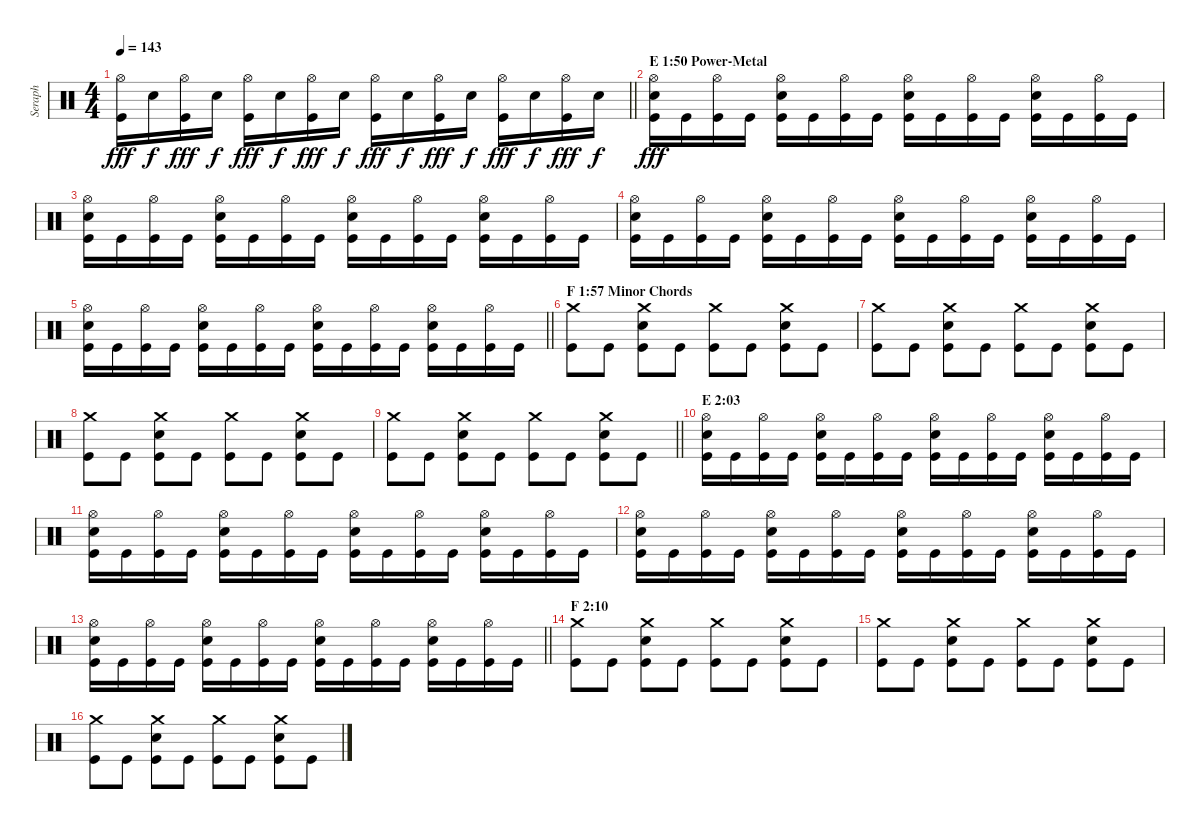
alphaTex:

\track ("Seraph" "Seraph") {instrument percussion}
\staff {score}
\articulation defaults
\ts (4 4)
\tempo 143
\clef neutral
\barLineRight lightlight
\ks c
("Hi-Hat (open)" "Kick (hit)").16{dy fff} "Electric Snare (hit)".16{dy f} ("Hi-Hat (open)" "Kick (hit)").16{dy fff} "Electric Snare (hit)".16{dy f} ("Hi-Hat (open)" "Kick (hit)").16{dy fff} "Electric Snare (hit)".16{dy f} ("Hi-Hat (open)" "Kick (hit)").16{dy fff} "Electric Snare (hit)".16{dy f} ("Hi-Hat (open)" "Kick (hit)").16{dy fff} "Electric Snare (hit)".16{dy f} ("Hi-Hat (open)" "Kick (hit)").16{dy fff} "Electric Snare (hit)".16{dy f} ("Hi-Hat (open)" "Kick (hit)").16{dy fff} "Electric Snare (hit)".16{dy f} ("Hi-Hat (open)" "Kick (hit)").16{dy fff} "Electric Snare (hit)".16{dy f} |
\section ("" "E 1:50 Power-Metal")
("Hi-Hat (open)" "Electric Snare (hit)" "Kick (hit)").16{dy fff} "Kick (hit)".16 ("Hi-Hat (open)" "Kick (hit)").16 "Kick (hit)".16 ("Hi-Hat (open)" "Electric Snare (hit)" "Kick (hit)").16 "Kick (hit)".16 ("Hi-Hat (open)" "Kick (hit)").16 "Kick (hit)".16 ("Hi-Hat (open)" "Electric Snare (hit)" "Kick (hit)").16 "Kick (hit)".16 ("Hi-Hat (open)" "Kick (hit)").16 "Kick (hit)".16 ("Hi-Hat (open)" "Electric Snare (hit)" "Kick (hit)").16 "Kick (hit)".16 ("Hi-Hat (open)" "Kick (hit)").16 "Kick (hit)".16 |
("Hi-Hat (open)" "Electric Snare (hit)" "Kick (hit)").16 "Kick (hit)".16 ("Hi-Hat (open)" "Kick (hit)").16 "Kick (hit)".16 ("Hi-Hat (open)" "Electric Snare (hit)" "Kick (hit)").16 "Kick (hit)".16 ("Hi-Hat (open)" "Kick (hit)").16 "Kick (hit)".16 ("Hi-Hat (open)" "Electric Snare (hit)" "Kick (hit)").16 "Kick (hit)".16 ("Hi-Hat (open)" "Kick (hit)").16 "Kick (hit)".16 ("Hi-Hat (open)" "Electric Snare (hit)" "Kick (hit)").16 "Kick (hit)".16 ("Hi-Hat (open)" "Kick (hit)").16 "Kick (hit)".16 |
("Hi-Hat (open)" "Electric Snare (hit)" "Kick (hit)").16 "Kick (hit)".16 ("Hi-Hat (open)" "Kick (hit)").16 "Kick (hit)".16 ("Hi-Hat (open)" "Electric Snare (hit)" "Kick (hit)").16 "Kick (hit)".16 ("Hi-Hat (open)" "Kick (hit)").16 "Kick (hit)".16 ("Hi-Hat (open)" "Electric Snare (hit)" "Kick (hit)").16 "Kick (hit)".16 ("Hi-Hat (open)" "Kick (hit)").16 "Kick (hit)".16 ("Hi-Hat (open)" "Electric Snare (hit)" "Kick (hit)").16 "Kick (hit)".16 ("Hi-Hat (open)" "Kick (hit)").16 "Kick (hit)".16 |
\barLineRight lightlight
("Hi-Hat (open)" "Electric Snare (hit)" "Kick (hit)").16 "Kick (hit)".16 ("Hi-Hat (open)" "Kick (hit)").16 "Kick (hit)".16 ("Hi-Hat (open)" "Electric Snare (hit)" "Kick (hit)").16 "Kick (hit)".16 ("Hi-Hat (open)" "Kick (hit)").16 "Kick (hit)".16 ("Hi-Hat (open)" "Electric Snare (hit)" "Kick (hit)").16 "Kick (hit)".16 ("Hi-Hat (open)" "Kick (hit)").16 "Kick (hit)".16 ("Hi-Hat (open)" "Electric Snare (hit)" "Kick (hit)").16 "Kick (hit)".16 ("Hi-Hat (open)" "Kick (hit)").16 "Kick (hit)".16 |
\section ("" "F 1:57 Minor Chords")
("Crash medium (hit)" "Kick (hit)").8 "Kick (hit)".8 ("Crash medium (hit)" "Electric Snare (hit)" "Kick (hit)").8 "Kick (hit)".8 ("Crash medium (hit)" "Kick (hit)").8 "Kick (hit)".8 ("Crash medium (hit)" "Electric Snare (hit)" "Kick (hit)").8 "Kick (hit)".8 |
("Crash medium (hit)" "Kick (hit)").8 "Kick (hit)".8 ("Crash medium (hit)" "Electric Snare (hit)" "Kick (hit)").8 "Kick (hit)".8 ("Crash medium (hit)" "Kick (hit)").8 "Kick (hit)".8 ("Crash medium (hit)" "Electric Snare (hit)" "Kick (hit)").8 "Kick (hit)".8 |
("Crash medium (hit)" "Kick (hit)").8 "Kick (hit)".8 ("Crash medium (hit)" "Electric Snare (hit)" "Kick (hit)").8 "Kick (hit)".8 ("Crash medium (hit)" "Kick (hit)").8 "Kick (hit)".8 ("Crash medium (hit)" "Electric Snare (hit)" "Kick (hit)").8 "Kick (hit)".8 |
\barLineRight lightlight
("Crash medium (hit)" "Kick (hit)").8 "Kick (hit)".8 ("Crash medium (hit)" "Electric Snare (hit)" "Kick (hit)").8 "Kick (hit)".8 ("Crash medium (hit)" "Kick (hit)").8 "Kick (hit)".8 ("Crash medium (hit)" "Electric Snare (hit)" "Kick (hit)").8 "Kick (hit)".8 |
\section ("" "E 2:03")
("Hi-Hat (open)" "Electric Snare (hit)" "Kick (hit)").16 "Kick (hit)".16 ("Hi-Hat (open)" "Kick (hit)").16 "Kick (hit)".16 ("Hi-Hat (open)" "Electric Snare (hit)" "Kick (hit)").16 "Kick (hit)".16 ("Hi-Hat (open)" "Kick (hit)").16 "Kick (hit)".16 ("Hi-Hat (open)" "Electric Snare (hit)" "Kick (hit)").16 "Kick (hit)".16 ("Hi-Hat (open)" "Kick (hit)").16 "Kick (hit)".16 ("Hi-Hat (open)" "Electric Snare (hit)" "Kick (hit)").16 "Kick (hit)".16 ("Hi-Hat (open)" "Kick (hit)").16 "Kick (hit)".16 |
("Hi-Hat (open)" "Electric Snare (hit)" "Kick (hit)").16 "Kick (hit)".16 ("Hi-Hat (open)" "Kick (hit)").16 "Kick (hit)".16 ("Hi-Hat (open)" "Electric Snare (hit)" "Kick (hit)").16 "Kick (hit)".16 ("Hi-Hat (open)" "Kick (hit)").16 "Kick (hit)".16 ("Hi-Hat (open)" "Electric Snare (hit)" "Kick (hit)").16 "Kick (hit)".16 ("Hi-Hat (open)" "Kick (hit)").16 "Kick (hit)".16 ("Hi-Hat (open)" "Electric Snare (hit)" "Kick (hit)").16 "Kick (hit)".16 ("Hi-Hat (open)" "Kick (hit)").16 "Kick (hit)".16 |
("Hi-Hat (open)" "Electric Snare (hit)" "Kick (hit)").16 "Kick (hit)".16 ("Hi-Hat (open)" "Kick (hit)").16 "Kick (hit)".16 ("Hi-Hat (open)" "Electric Snare (hit)" "Kick (hit)").16 "Kick (hit)".16 ("Hi-Hat (open)" "Kick (hit)").16 "Kick (hit)".16 ("Hi-Hat (open)" "Electric Snare (hit)" "Kick (hit)").16 "Kick (hit)".16 ("Hi-Hat (open)" "Kick (hit)").16 "Kick (hit)".16 ("Hi-Hat (open)" "Electric Snare (hit)" "Kick (hit)").16 "Kick (hit)".16 ("Hi-Hat (open)" "Kick (hit)").16 "Kick (hit)".16 |
\barLineRight lightlight
("Hi-Hat (open)" "Electric Snare (hit)" "Kick (hit)").16 "Kick (hit)".16 ("Hi-Hat (open)" "Kick (hit)").16 "Kick (hit)".16 ("Hi-Hat (open)" "Electric Snare (hit)" "Kick (hit)").16 "Kick (hit)".16 ("Hi-Hat (open)" "Kick (hit)").16 "Kick (hit)".16 ("Hi-Hat (open)" "Electric Snare (hit)" "Kick (hit)").16 "Kick (hit)".16 ("Hi-Hat (open)" "Kick (hit)").16 "Kick (hit)".16 ("Hi-Hat (open)" "Electric Snare (hit)" "Kick (hit)").16 "Kick (hit)".16 ("Hi-Hat (open)" "Kick (hit)").16 "Kick (hit)".16 |
\section ("" "F 2:10")
("Crash medium (hit)" "Kick (hit)").8 "Kick (hit)".8 ("Crash medium (hit)" "Electric Snare (hit)" "Kick (hit)").8 "Kick (hit)".8 ("Crash medium (hit)" "Kick (hit)").8 "Kick (hit)".8 ("Crash medium (hit)" "Electric Snare (hit)" "Kick (hit)").8 "Kick (hit)".8 |
("Crash medium (hit)" "Kick (hit)").8 "Kick (hit)".8 ("Crash medium (hit)" "Electric Snare (hit)" "Kick (hit)").8 "Kick (hit)".8 ("Crash medium (hit)" "Kick (hit)").8 "Kick (hit)".8 ("Crash medium (hit)" "Electric Snare (hit)" "Kick (hit)").8 "Kick (hit)".8 |
("Crash medium (hit)" "Kick (hit)").8 "Kick (hit)".8 ("Crash medium (hit)" "Electric Snare (hit)" "Kick (hit)").8 "Kick (hit)".8 ("Crash medium (hit)" "Kick (hit)").8 "Kick (hit)".8 ("Crash medium (hit)" "Electric Snare (hit)" "Kick (hit)").8 "Kick (hit)".8
